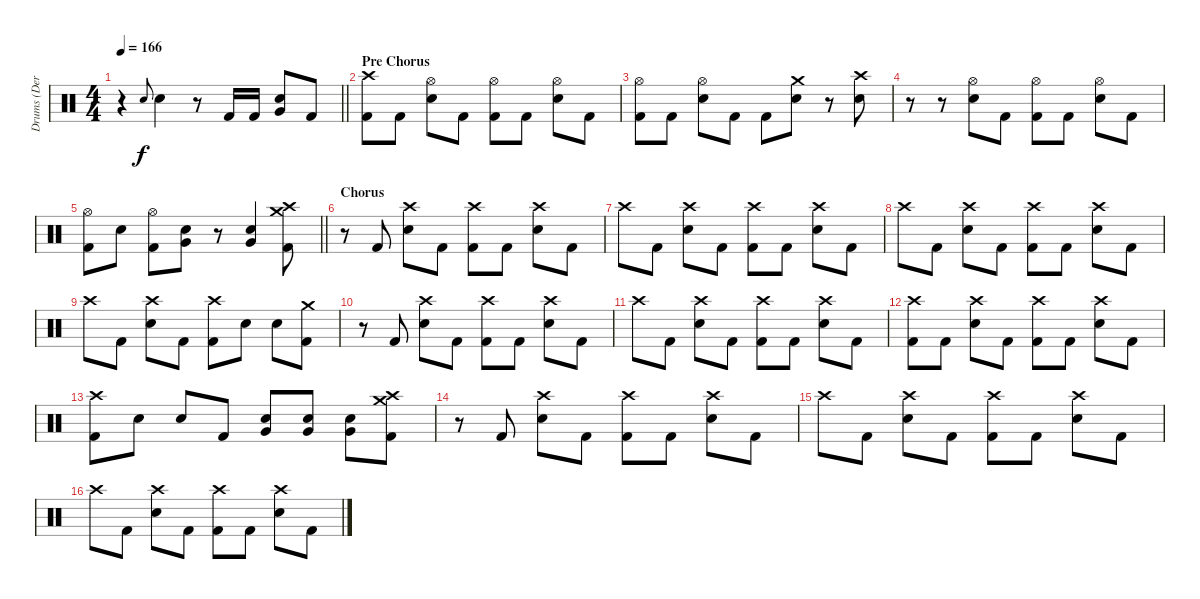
\track ("Drums (Derek)" "Drums (Der") {instrument percussion}
\staff {score}
\articulation defaults
\ts (4 4)
\tempo 166
\clef neutral
\barLineRight lightlight
\ks c
r.4{dy f} "Electric Snare (hit)".8{gr onbeat} "Electric Snare (hit)".4 r.8 "Kick (hit) 2".16 "Kick (hit) 2".16 ("Very Low Tom (hit)" "Electric Snare (hit)").8 "Kick (hit) 2".8 |
\section ("" "Pre Chorus")
("Crash high (hit)" "Kick (hit) 2").8 "Kick (hit) 2".8 ("Hi-Hat (open)" "Electric Snare (hit)").8 "Kick (hit) 2".8 ("Hi-Hat (open)" "Kick (hit) 2").8 "Kick (hit) 2".8 ("Hi-Hat (open)" "Electric Snare (hit)").8 "Kick (hit) 2".8 |
("Hi-Hat (open)" "Kick (hit) 2").8 "Kick (hit) 2".8 ("Hi-Hat (open)" "Electric Snare (hit)").8 "Kick (hit) 2".8 "Kick (hit) 2".8 ("Crash medium (hit)" "Electric Snare (hit)").8 r.8 ("Crash high (hit)" "Electric Snare (hit)").8 |
r.8 r.8 ("Hi-Hat (open)" "Electric Snare (hit)").8 "Kick (hit) 2".8 ("Hi-Hat (open)" "Kick (hit) 2").8 "Kick (hit) 2".8 ("Hi-Hat (open)" "Electric Snare (hit)").8 "Kick (hit) 2".8 |
\barLineRight lightlight
("Hi-Hat (open)" "Kick (hit) 2").8 "Electric Snare (hit)".8 ("Hi-Hat (open)" "Kick (hit) 2").8 ("Very Low Tom (hit)" "Electric Snare (hit)").8 r.8 ("Very Low Tom (hit)" "Electric Snare (hit)").4 ("Crash medium (hit)" "Crash high (hit)" "Kick (hit) 2").8 |
\section ("" "Chorus")
r.8 "Kick (hit) 2".8 ("Crash high (hit)" "Electric Snare (hit)").8 "Kick (hit) 2".8 ("Crash high (hit)" "Kick (hit) 2").8 "Kick (hit) 2".8 ("Crash high (hit)" "Electric Snare (hit)").8 "Kick (hit) 2".8 |
"Crash high (hit)".8 "Kick (hit) 2".8 ("Crash high (hit)" "Electric Snare (hit)").8 "Kick (hit) 2".8 ("Crash high (hit)" "Kick (hit) 2").8 "Kick (hit) 2".8 ("Crash high (hit)" "Electric Snare (hit)").8 "Kick (hit) 2".8 |
"Crash high (hit)".8 "Kick (hit) 2".8 ("Crash high (hit)" "Electric Snare (hit)").8 "Kick (hit) 2".8 ("Crash high (hit)" "Kick (hit) 2").8 "Kick (hit) 2".8 ("Crash high (hit)" "Electric Snare (hit)").8 "Kick (hit) 2".8 |
"Crash high (hit)".8 "Kick (hit) 2".8 ("Crash high (hit)" "Electric Snare (hit)").8 "Kick (hit) 2".8 ("Crash high (hit)" "Kick (hit) 2").8 "Electric Snare (hit)".8 "Electric Snare (hit)".8 ("Crash medium (hit)" "Kick (hit) 2").8 |
r.8 "Kick (hit) 2".8 ("Crash high (hit)" "Electric Snare (hit)").8 "Kick (hit) 2".8 ("Crash high (hit)" "Kick (hit) 2").8 "Kick (hit) 2".8 ("Crash high (hit)" "Electric Snare (hit)").8 "Kick (hit) 2".8 |
"Crash high (hit)".8 "Kick (hit) 2".8 ("Crash high (hit)" "Electric Snare (hit)").8 "Kick (hit) 2".8 ("Crash high (hit)" "Kick (hit) 2").8 "Kick (hit) 2".8 ("Crash high (hit)" "Electric Snare (hit)").8 "Kick (hit) 2".8 |
("Crash high (hit)" "Kick (hit) 2").8 "Kick (hit) 2".8 ("Crash high (hit)" "Electric Snare (hit)").8 "Kick (hit) 2".8 ("Crash high (hit)" "Kick (hit) 2").8 "Kick (hit) 2".8 ("Crash high (hit)" "Electric Snare (hit)").8 "Kick (hit) 2".8 |
("Crash high (hit)" "Kick (hit) 2").8 "Electric Snare (hit)".8 "Electric Snare (hit)".8 "Kick (hit) 2".8 ("Very Low Tom (hit)" "Electric Snare (hit)").8 ("Very Low Tom (hit)" "Electric Snare (hit)").8 ("Very Low Tom (hit)" "Electric Snare (hit)").8 ("Crash high (hit)" "Crash medium (hit)" "Kick (hit) 2").8 |
r.8 "Kick (hit) 2".8 ("Crash high (hit)" "Electric Snare (hit)").8 "Kick (hit) 2".8 ("Crash high (hit)" "Kick (hit) 2").8 "Kick (hit) 2".8 ("Crash high (hit)" "Electric Snare (hit)").8 "Kick (hit) 2".8 |
"Crash high (hit)".8 "Kick (hit) 2".8 ("Crash high (hit)" "Electric Snare (hit)").8 "Kick (hit) 2".8 ("Crash high (hit)" "Kick (hit) 2").8 "Kick (hit) 2".8 ("Crash high (hit)" "Electric Snare (hit)").8 "Kick (hit) 2".8 |
"Crash high (hit)".8 "Kick (hit) 2".8 ("Crash high (hit)" "Electric Snare (hit)").8 "Kick (hit) 2".8 ("Crash high (hit)" "Kick (hit) 2").8 "Kick (hit) 2".8 ("Crash high (hit)" "Electric Snare (hit)").8 "Kick (hit) 2".8
